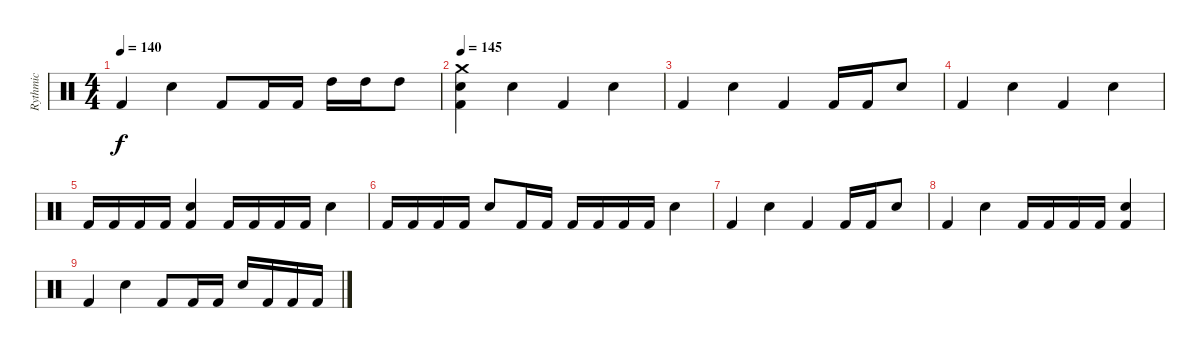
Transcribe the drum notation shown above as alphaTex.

\track ("Rythmic" "Rythmic") {instrument percussion}
\staff {score}
\articulation defaults
\ts (4 4)
\tempo 140
\clef neutral
\ks c "Kick (hit) 2".4{dy f} "Snare (hit) 2".4 "Kick (hit) 2".8 "Kick (hit) 2".16 "Kick (hit) 2".16 "High Tom (hit)".16 "High Tom (hit)".16 "High Tom (hit)".8
|
\tempo 145
("Crash medium (hit)" "Snare (hit) 2" "Kick (hit) 2").4 "Snare (hit) 2".4 "Kick (hit) 2".4 "Snare (hit) 2".4 |
"Kick (hit) 2".4 "Snare (hit) 2".4 "Kick (hit) 2".4 "Kick (hit) 2".16 "Kick (hit) 2".16 "Snare (hit) 2".8 |
"Kick (hit) 2".4 "Snare (hit) 2".4 "Kick (hit) 2".4 "Snare (hit) 2".4 |
"Kick (hit) 2".16 "Kick (hit) 2".16 "Kick (hit) 2".16 "Kick (hit) 2".16 ("Snare (hit) 2" "Kick (hit) 2").4 "Kick (hit) 2".16 "Kick (hit) 2".16 "Kick (hit) 2".16 "Kick (hit) 2".16 "Snare (hit) 2".4 |
"Kick (hit) 2".16 "Kick (hit) 2".16 "Kick (hit) 2".16 "Kick (hit) 2".16 "Snare (hit) 2".8 "Kick (hit) 2".16 "Kick (hit) 2".16 "Kick (hit) 2".16 "Kick (hit) 2".16 "Kick (hit) 2".16 "Kick (hit) 2".16 "Snare (hit) 2".4 |
"Kick (hit) 2".4 "Snare (hit) 2".4 "Kick (hit) 2".4 "Kick (hit) 2".16 "Kick (hit) 2".16 "Snare (hit) 2".8 |
"Kick (hit) 2".4 "Snare (hit) 2".4 "Kick (hit) 2".16 "Kick (hit) 2".16 "Kick (hit) 2".16 "Kick (hit) 2".16 ("Snare (hit) 2" "Kick (hit) 2").4 |
"Kick (hit) 2".4 "Snare (hit) 2".4 "Kick (hit) 2".8 "Kick (hit) 2".16 "Kick (hit) 2".16 "Snare (hit) 2".16 "Kick (hit) 2".16 "Kick (hit) 2".16 "Kick (hit) 2".16
